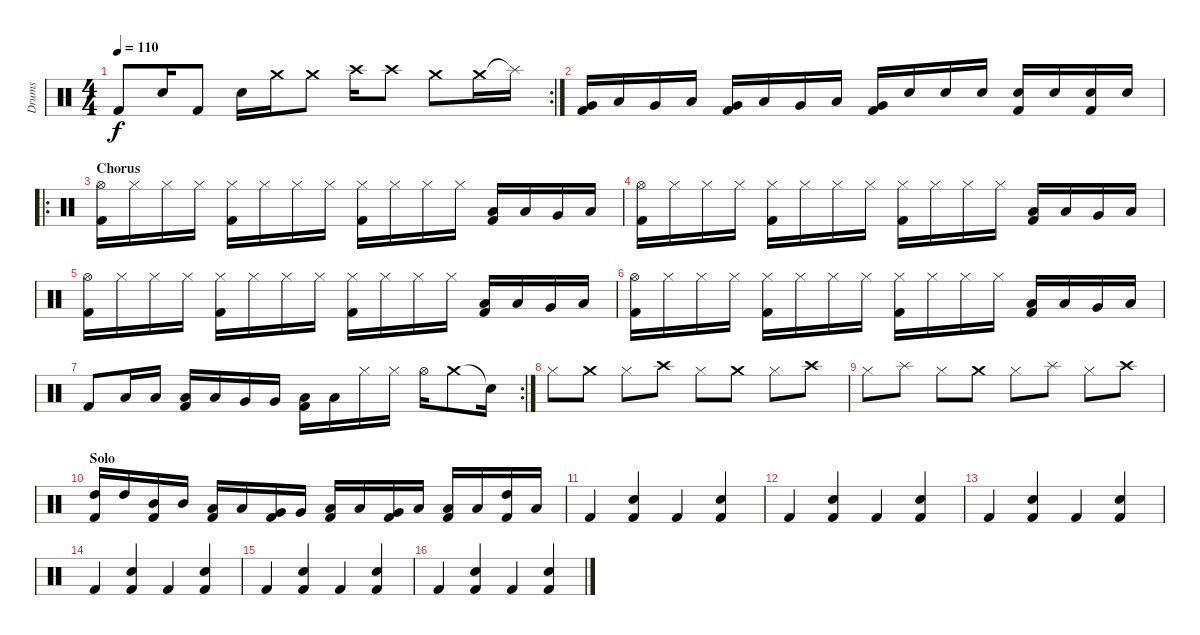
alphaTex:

\track ("Drums" "Drums") {instrument percussion}
\staff {score}
\articulation defaults
\rc 2
\ts (4 4)
\tempo 110
\clef neutral
\ks c "Kick (hit) 2".8{dy f} "Snare (hit) 2".16 "Kick (hit) 2".8 "Snare (hit) 2".16 "Crash medium (hit)".16 "Crash medium (hit)".8 "Crash high (hit)".16 "Crash high (hit)".8 "Crash medium (hit)".8 "Crash medium (hit)".16 "Splash (hit)"{t}.16
|
("Very Low Tom (hit)" "Kick (hit) 2").16 "Low Tom (hit)".16 "Very Low Tom (hit)".16 "Low Floor Tom (hit)".16 ("Very Low Tom (hit)" "Kick (hit) 2").16 "Low Tom (hit)".16 "Very Low Tom (hit)".16 "Low Floor Tom (hit)".16 ("Very Low Tom (hit)" "Kick (hit) 2").16 "Snare (hit) 2".16 "Snare (hit) 2".16 "Snare (hit) 2".16 ("Snare (hit) 2" "Kick (hit) 2").16 "Snare (hit) 2".16 ("Snare (hit) 2" "Kick (hit) 2").16 "Snare (hit) 2".16 |
\ro
\section ("" "Chorus")
("Hi-Hat (open)" "Kick (hit) 2").16 "Hi-Hat (closed)".16 "Hi-Hat (closed)".16 "Hi-Hat (closed)".16 ("Hi-Hat (closed)" "Kick (hit) 2").16 "Hi-Hat (closed)".16 "Hi-Hat (closed)".16 "Hi-Hat (closed)".16 ("Hi-Hat (closed)" "Kick (hit) 2").16 "Hi-Hat (closed)".16 "Hi-Hat (closed)".16 "Hi-Hat (closed)".16 ("Low Floor Tom (hit)" "Kick (hit) 2").16 "Low Tom (hit)".16 "Very Low Tom (hit)".16 "Low Floor Tom (hit)".16 |
("Hi-Hat (open)" "Kick (hit) 2").16 "Hi-Hat (closed)".16 "Hi-Hat (closed)".16 "Hi-Hat (closed)".16 ("Hi-Hat (closed)" "Kick (hit) 2").16 "Hi-Hat (closed)".16 "Hi-Hat (closed)".16 "Hi-Hat (closed)".16 ("Hi-Hat (closed)" "Kick (hit) 2").16 "Hi-Hat (closed)".16 "Hi-Hat (closed)".16 "Hi-Hat (closed)".16 ("Low Floor Tom (hit)" "Kick (hit) 2").16 "Low Tom (hit)".16 "Very Low Tom (hit)".16 "Low Floor Tom (hit)".16 |
("Hi-Hat (open)" "Kick (hit) 2").16 "Hi-Hat (closed)".16 "Hi-Hat (closed)".16 "Hi-Hat (closed)".16 ("Hi-Hat (closed)" "Kick (hit) 2").16 "Hi-Hat (closed)".16 "Hi-Hat (closed)".16 "Hi-Hat (closed)".16 ("Hi-Hat (closed)" "Kick (hit) 2").16 "Hi-Hat (closed)".16 "Hi-Hat (closed)".16 "Hi-Hat (closed)".16 ("Low Floor Tom (hit)" "Kick (hit) 2").16 "Low Tom (hit)".16 "Very Low Tom (hit)".16 "Low Floor Tom (hit)".16 |
("Hi-Hat (open)" "Kick (hit) 2").16 "Hi-Hat (closed)".16 "Hi-Hat (closed)".16 "Hi-Hat (closed)".16 ("Hi-Hat (closed)" "Kick (hit) 2").16 "Hi-Hat (closed)".16 "Hi-Hat (closed)".16 "Hi-Hat (closed)".16 ("Hi-Hat (closed)" "Kick (hit) 2").16 "Hi-Hat (closed)".16 "Hi-Hat (closed)".16 "Hi-Hat (closed)".16 ("Low Floor Tom (hit)" "Kick (hit) 2").16 "Low Tom (hit)".16 "Very Low Tom (hit)".16 "Low Floor Tom (hit)".16 |
\rc 2 "Kick (hit) 2".8 "Low Floor Tom (hit)".16 "Low Floor Tom (hit)".16
("Low Tom (hit)" "Kick (hit) 2").16 "Low Tom (hit)".16 "Very Low Tom (hit)".16 "Very Low Tom (hit)".16 ("Low Floor Tom (hit)" "Kick (hit) 2").16 "Low Floor Tom (hit)".16 "Hi-Hat (closed)".16 "Hi-Hat (closed)".16 "Hi-Hat (open)".16 "Crash medium (hit)".8 "Snare (hit)"{t}.16 |
"Hi-Hat (closed)".8 "Crash medium (hit)".8 "Hi-Hat (closed)".8 "Crash high (hit)".8 "Hi-Hat (closed)".8 "Crash medium (hit)".8 "Hi-Hat (closed)".8 "Crash high (hit)".8 |
"Hi-Hat (closed)".8 "Splash (hit)".8 "Hi-Hat (closed)".8 "Crash medium (hit)".8 "Hi-Hat (closed)".8 "Splash (hit)".8 "Hi-Hat (closed)".8 "Crash high (hit)".8 |
\section ("" "Solo")
("High Tom (hit)" "Kick (hit) 2").16 "High Tom (hit)".16 ("Mid Tom (hit)" "Kick (hit) 2").16 "Mid Tom (hit)".16 ("Low Tom (hit)" "Kick (hit) 2").16 "Low Tom (hit)".16 ("Very Low Tom (hit)" "Kick (hit) 2").16 "Very Low Tom (hit)".16 ("Low Floor Tom (hit)" "Kick (hit) 2").16 "Low Floor Tom (hit)".16 ("Very Low Tom (hit)" "Kick (hit) 2").16 "Low Floor Tom (hit)".16 ("Low Tom (hit)" "Kick (hit) 2").16 "Low Floor Tom (hit)".16 ("High Tom (hit)" "Kick (hit) 2").16 "Low Floor Tom (hit)".16 |
"Kick (hit) 2".4 ("Snare (hit) 2" "Kick (hit) 2").4 "Kick (hit) 2".4 ("Snare (hit) 2" "Kick (hit) 2").4 |
"Kick (hit) 2".4 ("Snare (hit) 2" "Kick (hit) 2").4 "Kick (hit) 2".4 ("Snare (hit) 2" "Kick (hit) 2").4 |
"Kick (hit) 2".4 ("Snare (hit) 2" "Kick (hit) 2").4 "Kick (hit) 2".4 ("Snare (hit) 2" "Kick (hit) 2").4 |
"Kick (hit) 2".4 ("Snare (hit) 2" "Kick (hit) 2").4 "Kick (hit) 2".4 ("Snare (hit) 2" "Kick (hit) 2").4 |
"Kick (hit) 2".4 ("Snare (hit) 2" "Kick (hit) 2").4 "Kick (hit) 2".4 ("Snare (hit) 2" "Kick (hit) 2").4 |
"Kick (hit) 2".4 ("Snare (hit) 2" "Kick (hit) 2").4 "Kick (hit) 2".4 ("Snare (hit) 2" "Kick (hit) 2").4
